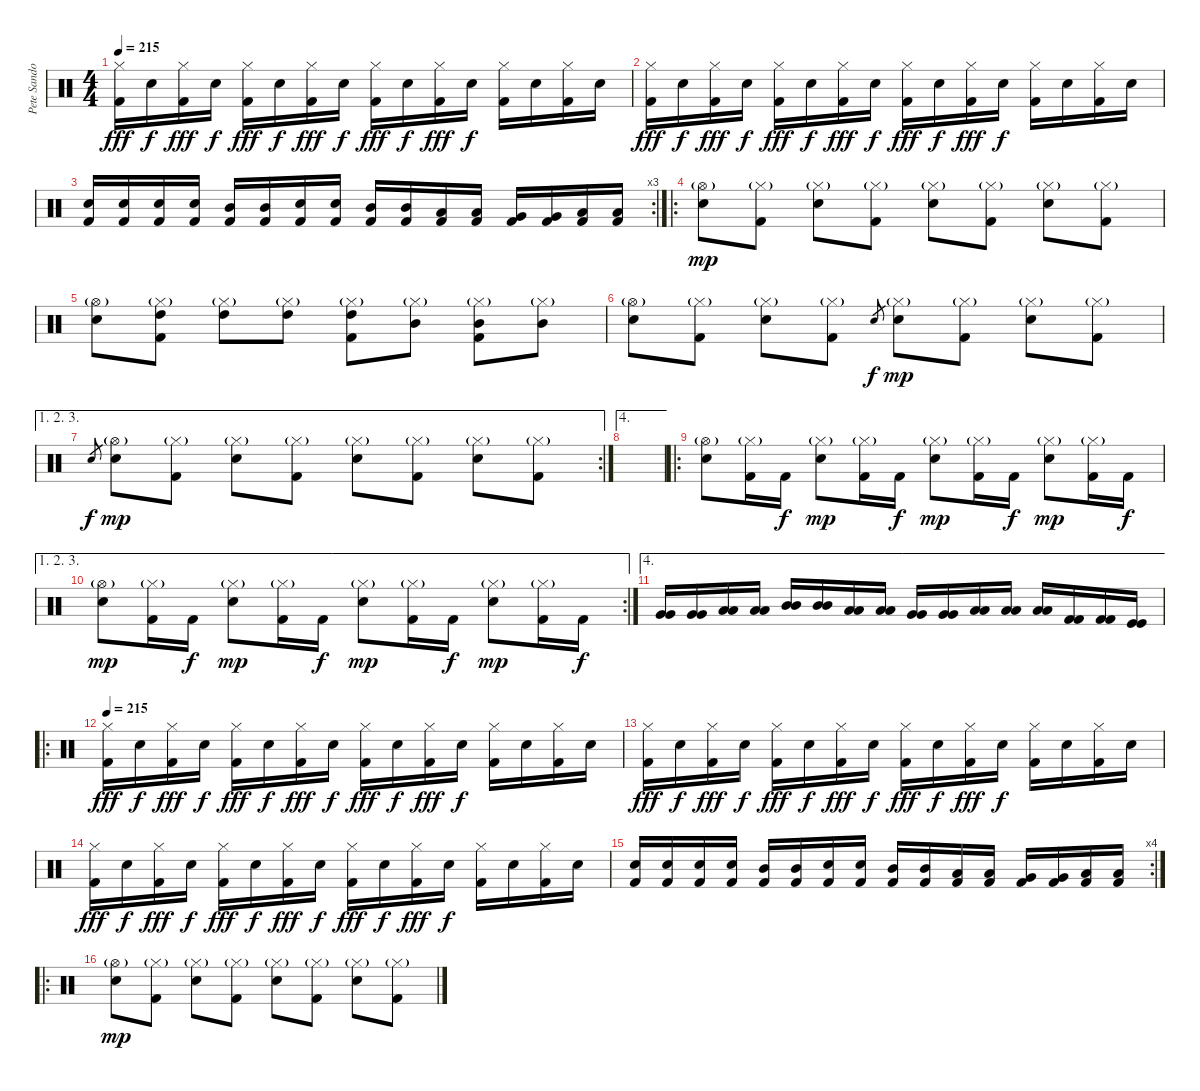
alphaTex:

\track ("Pete Sandoval" "Pete Sando") {instrument percussion}
\staff {score}
\articulation defaults
\ts (4 4)
\tempo 215
\clef neutral
\ks c
("Hi-Hat (closed)" "Kick (hit) 2").16{dy fff} "Snare (hit) 2".16{dy f} ("Hi-Hat (closed)" "Kick (hit) 2").16{dy fff} "Snare (hit) 2".16{dy f} ("Hi-Hat (closed)" "Kick (hit) 2").16{dy fff} "Snare (hit) 2".16{dy f} ("Hi-Hat (closed)" "Kick (hit) 2").16{dy fff} "Snare (hit) 2".16{dy f} ("Hi-Hat (closed)" "Kick (hit) 2").16{dy fff} "Snare (hit) 2".16{dy f} ("Hi-Hat (closed)" "Kick (hit) 2").16{dy fff} "Snare (hit) 2".16{dy f} ("Hi-Hat (closed)" "Kick (hit) 2").16 "Snare (hit) 2".16 ("Hi-Hat (closed)" "Kick (hit) 2").16 "Snare (hit) 2".16 |
("Hi-Hat (closed)" "Kick (hit) 2").16{dy fff} "Snare (hit) 2".16{dy f} ("Hi-Hat (closed)" "Kick (hit) 2").16{dy fff} "Snare (hit) 2".16{dy f} ("Hi-Hat (closed)" "Kick (hit) 2").16{dy fff} "Snare (hit) 2".16{dy f} ("Hi-Hat (closed)" "Kick (hit) 2").16{dy fff} "Snare (hit) 2".16{dy f} ("Hi-Hat (closed)" "Kick (hit) 2").16{dy fff} "Snare (hit) 2".16{dy f} ("Hi-Hat (closed)" "Kick (hit) 2").16{dy fff} "Snare (hit) 2".16{dy f} ("Hi-Hat (closed)" "Kick (hit) 2").16 "Snare (hit) 2".16 ("Hi-Hat (closed)" "Kick (hit) 2").16 "Snare (hit) 2".16 |
\rc 3
("Snare (hit) 2" "Kick (hit) 2").16 ("Snare (hit) 2" "Kick (hit) 2").16 ("Snare (hit) 2" "Kick (hit) 2").16 ("Snare (hit) 2" "Kick (hit) 2").16 ("Mid Tom (hit)" "Kick (hit) 2").16 ("Mid Tom (hit)" "Kick (hit) 2").16 ("Snare (hit) 2" "Kick (hit) 2").16 ("Snare (hit) 2" "Kick (hit) 2").16 ("Mid Tom (hit)" "Kick (hit) 2").16 ("Mid Tom (hit)" "Kick (hit) 2").16 ("Low Tom (hit)" "Kick (hit) 2").16 ("Low Tom (hit)" "Kick (hit) 2").16 ("Very Low Tom (hit)" "Kick (hit) 2").16 ("Very Low Tom (hit)" "Kick (hit) 2").16 ("Low Floor Tom (hit)" "Kick (hit) 2").16 ("Low Floor Tom (hit)" "Kick (hit) 2").16 |
\ro
("Hi-Hat (open)"{g} "Snare (hit) 2").8{dy mp} ("Hi-Hat (closed)"{g} "Kick (hit) 2").8 ("Hi-Hat (closed)"{g} "Snare (hit) 2").8 ("Hi-Hat (closed)"{g} "Kick (hit) 2").8 ("Hi-Hat (closed)"{g} "Snare (hit) 2").8 ("Hi-Hat (closed)"{g} "Kick (hit) 2").8 ("Hi-Hat (closed)"{g} "Snare (hit) 2").8 ("Hi-Hat (closed)"{g} "Kick (hit) 2").8 |
("Hi-Hat (open)"{g} "Snare (hit) 2").8 ("Hi-Hat (closed)"{g} "High Tom (hit)" "Kick (hit) 2").8 ("Hi-Hat (closed)"{g} "High Tom (hit)").8 ("Hi-Hat (closed)"{g} "High Tom (hit)").8 ("Hi-Hat (closed)"{g} "High Tom (hit)" "Kick (hit) 2").8 ("Hi-Hat (closed)"{g} "Mid Tom (hit)").8 ("Hi-Hat (closed)"{g} "Mid Tom (hit)" "Kick (hit) 2").8 ("Hi-Hat (closed)"{g} "Mid Tom (hit)").8 |
("Hi-Hat (open)"{g} "Snare (hit) 2").8 ("Hi-Hat (closed)"{g} "Kick (hit) 2").8 ("Hi-Hat (closed)"{g} "Snare (hit) 2").8 ("Hi-Hat (closed)"{g} "Kick (hit) 2").8 "Snare (hit) 2".8{gr dy f} ("Hi-Hat (closed)"{g} "Snare (hit) 2").8{dy mp} ("Hi-Hat (closed)"{g} "Kick (hit) 2").8 ("Hi-Hat (closed)"{g} "Snare (hit) 2").8 ("Hi-Hat (closed)"{g} "Kick (hit) 2").8 |
\ae (1 2 3)
\rc 2 "Snare (hit) 2".8{gr dy f}
("Hi-Hat (open)"{g} "Snare (hit) 2").8{dy mp} ("Hi-Hat (closed)"{g} "Kick (hit) 2").8 ("Hi-Hat (closed)"{g} "Snare (hit) 2").8 ("Hi-Hat (closed)"{g} "Kick (hit) 2").8 ("Hi-Hat (closed)"{g} "Snare (hit) 2").8 ("Hi-Hat (closed)"{g} "Kick (hit) 2").8 ("Hi-Hat (closed)"{g} "Snare (hit) 2").8 ("Hi-Hat (closed)"{g} "Kick (hit) 2").8 |
\ae 4
|
\ro
("Hi-Hat (open)"{g} "Snare (hit) 2").8 ("Hi-Hat (closed)"{g} "Kick (hit) 2").16 "Kick (hit) 2".16{dy f} ("Hi-Hat (closed)"{g} "Snare (hit) 2").8{dy mp} ("Hi-Hat (closed)"{g} "Kick (hit) 2").16 "Kick (hit) 2".16{dy f} ("Hi-Hat (closed)"{g} "Snare (hit) 2").8{dy mp} ("Hi-Hat (closed)"{g} "Kick (hit) 2").16 "Kick (hit) 2".16{dy f} ("Hi-Hat (closed)"{g} "Snare (hit) 2").8{dy mp} ("Hi-Hat (closed)"{g} "Kick (hit) 2").16 "Kick (hit) 2".16{dy f} |
\ae (1 2 3)
\rc 2
("Hi-Hat (open)"{g} "Snare (hit) 2").8{dy mp} ("Hi-Hat (closed)"{g} "Kick (hit) 2").16 "Kick (hit) 2".16{dy f} ("Hi-Hat (closed)"{g} "Snare (hit) 2").8{dy mp} ("Hi-Hat (closed)"{g} "Kick (hit) 2").16 "Kick (hit) 2".16{dy f} ("Hi-Hat (closed)"{g} "Snare (hit) 2").8{dy mp} ("Hi-Hat (closed)"{g} "Kick (hit) 2").16 "Kick (hit) 2".16{dy f} ("Hi-Hat (closed)"{g} "Snare (hit) 2").8{dy mp} ("Hi-Hat (closed)"{g} "Kick (hit) 2").16 "Kick (hit) 2".16{dy f} |
\ae 4
("Very Low Tom (hit)" "Very Low Tom (hit)").16 ("Very Low Tom (hit)" "Very Low Tom (hit)").16 ("Low Tom (hit)" "Low Tom (hit)").16 ("Low Tom (hit)" "Low Tom (hit)").16 ("Mid Tom (hit)" "Mid Tom (hit)").16 ("Mid Tom (hit)" "Mid Tom (hit)").16 ("Low Tom (hit)" "Low Tom (hit)").16 ("Low Tom (hit)" "Low Tom (hit)").16 ("Very Low Tom (hit)" "Very Low Tom (hit)").16 ("Very Low Tom (hit)" "Very Low Tom (hit)").16 ("Low Floor Tom (hit)" "Low Floor Tom (hit)").16 ("Low Floor Tom (hit)" "Low Floor Tom (hit)").16 ("Low Floor Tom (hit)" "Low Floor Tom (hit)").16 ("Kick (hit) 2" "Kick (hit) 2").16 ("Kick (hit) 2" "Kick (hit) 2").16 ("Kick (hit)" "Kick (hit)").16 |
\ro
\tempo 215
("Hi-Hat (closed)" "Kick (hit) 2").16{dy fff} "Snare (hit) 2".16{dy f} ("Hi-Hat (closed)" "Kick (hit) 2").16{dy fff} "Snare (hit) 2".16{dy f} ("Hi-Hat (closed)" "Kick (hit) 2").16{dy fff} "Snare (hit) 2".16{dy f} ("Hi-Hat (closed)" "Kick (hit) 2").16{dy fff} "Snare (hit) 2".16{dy f} ("Hi-Hat (closed)" "Kick (hit) 2").16{dy fff} "Snare (hit) 2".16{dy f} ("Hi-Hat (closed)" "Kick (hit) 2").16{dy fff} "Snare (hit) 2".16{dy f} ("Hi-Hat (closed)" "Kick (hit) 2").16 "Snare (hit) 2".16 ("Hi-Hat (closed)" "Kick (hit) 2").16 "Snare (hit) 2".16 |
("Hi-Hat (closed)" "Kick (hit) 2").16{dy fff} "Snare (hit) 2".16{dy f} ("Hi-Hat (closed)" "Kick (hit) 2").16{dy fff} "Snare (hit) 2".16{dy f} ("Hi-Hat (closed)" "Kick (hit) 2").16{dy fff} "Snare (hit) 2".16{dy f} ("Hi-Hat (closed)" "Kick (hit) 2").16{dy fff} "Snare (hit) 2".16{dy f} ("Hi-Hat (closed)" "Kick (hit) 2").16{dy fff} "Snare (hit) 2".16{dy f} ("Hi-Hat (closed)" "Kick (hit) 2").16{dy fff} "Snare (hit) 2".16{dy f} ("Hi-Hat (closed)" "Kick (hit) 2").16 "Snare (hit) 2".16 ("Hi-Hat (closed)" "Kick (hit) 2").16 "Snare (hit) 2".16 |
("Hi-Hat (closed)" "Kick (hit) 2").16{dy fff} "Snare (hit) 2".16{dy f} ("Hi-Hat (closed)" "Kick (hit) 2").16{dy fff} "Snare (hit) 2".16{dy f} ("Hi-Hat (closed)" "Kick (hit) 2").16{dy fff} "Snare (hit) 2".16{dy f} ("Hi-Hat (closed)" "Kick (hit) 2").16{dy fff} "Snare (hit) 2".16{dy f} ("Hi-Hat (closed)" "Kick (hit) 2").16{dy fff} "Snare (hit) 2".16{dy f} ("Hi-Hat (closed)" "Kick (hit) 2").16{dy fff} "Snare (hit) 2".16{dy f} ("Hi-Hat (closed)" "Kick (hit) 2").16 "Snare (hit) 2".16 ("Hi-Hat (closed)" "Kick (hit) 2").16 "Snare (hit) 2".16 |
\rc 4
("Snare (hit) 2" "Kick (hit) 2").16 ("Snare (hit) 2" "Kick (hit) 2").16 ("Snare (hit) 2" "Kick (hit) 2").16 ("Snare (hit) 2" "Kick (hit) 2").16 ("Mid Tom (hit)" "Kick (hit) 2").16 ("Mid Tom (hit)" "Kick (hit) 2").16 ("Snare (hit) 2" "Kick (hit) 2").16 ("Snare (hit) 2" "Kick (hit) 2").16 ("Mid Tom (hit)" "Kick (hit) 2").16 ("Mid Tom (hit)" "Kick (hit) 2").16 ("Low Tom (hit)" "Kick (hit) 2").16 ("Low Tom (hit)" "Kick (hit) 2").16 ("Very Low Tom (hit)" "Kick (hit) 2").16 ("Very Low Tom (hit)" "Kick (hit) 2").16 ("Low Floor Tom (hit)" "Kick (hit) 2").16 ("Low Floor Tom (hit)" "Kick (hit) 2").16 |
\ro
("Hi-Hat (open)"{g} "Snare (hit) 2").8{dy mp} ("Hi-Hat (closed)"{g} "Kick (hit) 2").8 ("Hi-Hat (closed)"{g} "Snare (hit) 2").8 ("Hi-Hat (closed)"{g} "Kick (hit) 2").8 ("Hi-Hat (closed)"{g} "Snare (hit) 2").8 ("Hi-Hat (closed)"{g} "Kick (hit) 2").8 ("Hi-Hat (closed)"{g} "Snare (hit) 2").8 ("Hi-Hat (closed)"{g} "Kick (hit) 2").8
